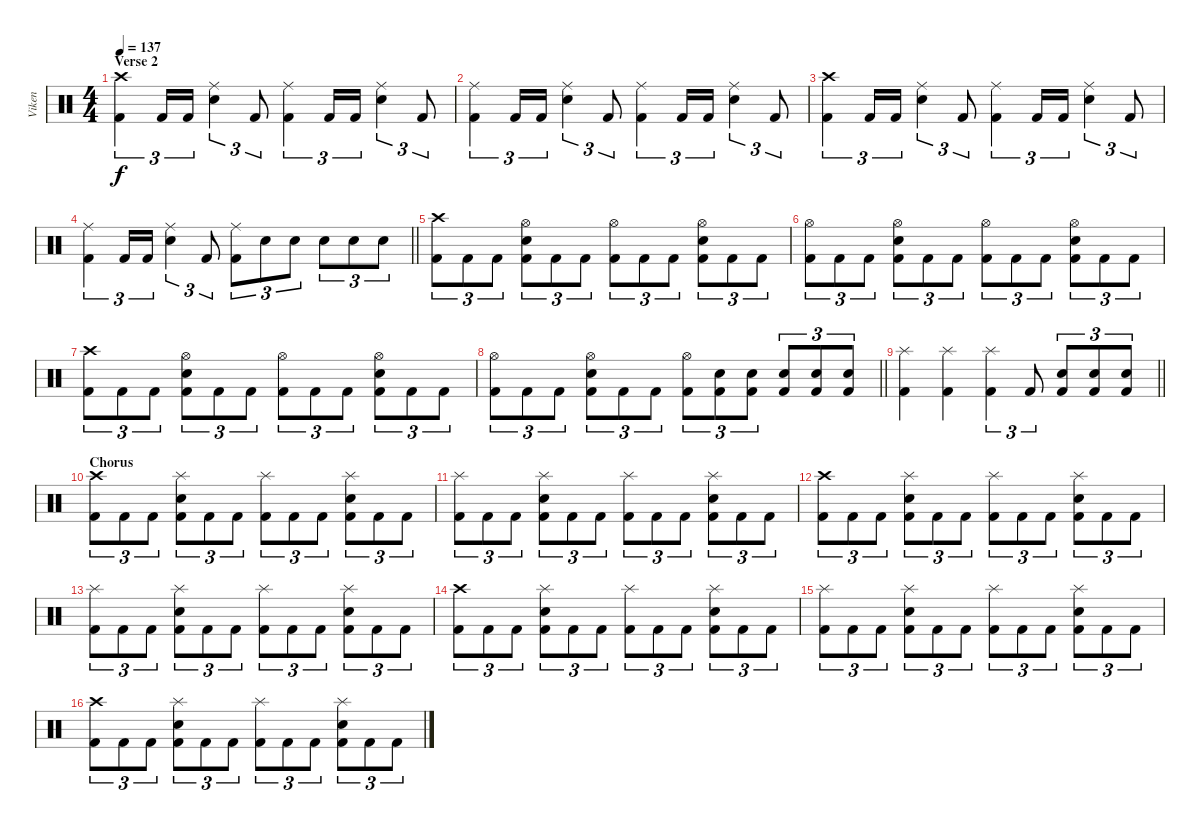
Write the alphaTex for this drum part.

\track ("Viken" "Viken") {instrument percussion}
\staff {score}
\articulation defaults
\ts (4 4)
\section ("" "Verse 2")
\tempo 137
\clef neutral
\ks c
("Crash high (hit)" "Kick (hit) 2").4{tu (3 2) dy f} "Kick (hit) 2".16{tu (3 2)} "Kick (hit) 2".16{tu (3 2)} ("Ride (middle)" "Electric Snare (hit)").4{tu (3 2)} "Kick (hit) 2".8{tu (3 2)} ("Ride (middle)" "Kick (hit) 2").4{tu (3 2)} "Kick (hit) 2".16{tu (3 2)} "Kick (hit) 2".16{tu (3 2)} ("Ride (middle)" "Electric Snare (hit)").4{tu (3 2)} "Kick (hit) 2".8{tu (3 2)} |
("Ride (middle)" "Kick (hit) 2").4{tu (3 2)} "Kick (hit) 2".16{tu (3 2)} "Kick (hit) 2".16{tu (3 2)} ("Ride (middle)" "Electric Snare (hit)").4{tu (3 2)} "Kick (hit) 2".8{tu (3 2)} ("Ride (middle)" "Kick (hit) 2").4{tu (3 2)} "Kick (hit) 2".16{tu (3 2)} "Kick (hit) 2".16{tu (3 2)} ("Ride (middle)" "Electric Snare (hit)").4{tu (3 2)} "Kick (hit) 2".8{tu (3 2)} |
("Crash high (hit)" "Kick (hit) 2").4{tu (3 2)} "Kick (hit) 2".16{tu (3 2)} "Kick (hit) 2".16{tu (3 2)} ("Ride (middle)" "Electric Snare (hit)").4{tu (3 2)} "Kick (hit) 2".8{tu (3 2)} ("Ride (middle)" "Kick (hit) 2").4{tu (3 2)} "Kick (hit) 2".16{tu (3 2)} "Kick (hit) 2".16{tu (3 2)} ("Ride (middle)" "Electric Snare (hit)").4{tu (3 2)} "Kick (hit) 2".8{tu (3 2)} |
\barLineRight lightlight
("Ride (middle)" "Kick (hit) 2").4{tu (3 2)} "Kick (hit) 2".16{tu (3 2)} "Kick (hit) 2".16{tu (3 2)} ("Ride (middle)" "Electric Snare (hit)").4{tu (3 2)} "Kick (hit) 2".8{tu (3 2)} ("Ride (middle)" "Kick (hit) 2").8{tu (3 2)} "Electric Snare (hit)".8{tu (3 2)} "Electric Snare (hit)".8{tu (3 2)} "Electric Snare (hit)".8{tu (3 2)} "Electric Snare (hit)".8{tu (3 2)} "Electric Snare (hit)".8{tu (3 2)} |
\section ("" "")
("Crash high (hit)" "Kick (hit) 2").8{tu (3 2)} "Kick (hit) 2".8{tu (3 2)} "Kick (hit) 2".8{tu (3 2)} ("Hi-Hat (open)" "Electric Snare (hit)" "Kick (hit) 2").8{tu (3 2)} "Kick (hit) 2".8{tu (3 2)} "Kick (hit) 2".8{tu (3 2)} ("Hi-Hat (open)" "Kick (hit) 2").8{tu (3 2)} "Kick (hit) 2".8{tu (3 2)} "Kick (hit) 2".8{tu (3 2)} ("Hi-Hat (open)" "Electric Snare (hit)" "Kick (hit) 2").8{tu (3 2)} "Kick (hit) 2".8{tu (3 2)} "Kick (hit) 2".8{tu (3 2)} |
("Hi-Hat (open)" "Kick (hit) 2").8{tu (3 2)} "Kick (hit) 2".8{tu (3 2)} "Kick (hit) 2".8{tu (3 2)} ("Hi-Hat (open)" "Electric Snare (hit)" "Kick (hit) 2").8{tu (3 2)} "Kick (hit) 2".8{tu (3 2)} "Kick (hit) 2".8{tu (3 2)} ("Hi-Hat (open)" "Kick (hit) 2").8{tu (3 2)} "Kick (hit) 2".8{tu (3 2)} "Kick (hit) 2".8{tu (3 2)} ("Hi-Hat (open)" "Electric Snare (hit)" "Kick (hit) 2").8{tu (3 2)} "Kick (hit) 2".8{tu (3 2)} "Kick (hit) 2".8{tu (3 2)} |
("Crash high (hit)" "Kick (hit) 2").8{tu (3 2)} "Kick (hit) 2".8{tu (3 2)} "Kick (hit) 2".8{tu (3 2)} ("Hi-Hat (open)" "Electric Snare (hit)" "Kick (hit) 2").8{tu (3 2)} "Kick (hit) 2".8{tu (3 2)} "Kick (hit) 2".8{tu (3 2)} ("Hi-Hat (open)" "Kick (hit) 2").8{tu (3 2)} "Kick (hit) 2".8{tu (3 2)} "Kick (hit) 2".8{tu (3 2)} ("Hi-Hat (open)" "Electric Snare (hit)" "Kick (hit) 2").8{tu (3 2)} "Kick (hit) 2".8{tu (3 2)} "Kick (hit) 2".8{tu (3 2)} |
\barLineRight lightlight
("Hi-Hat (open)" "Kick (hit) 2").8{tu (3 2)} "Kick (hit) 2".8{tu (3 2)} "Kick (hit) 2".8{tu (3 2)} ("Hi-Hat (open)" "Electric Snare (hit)" "Kick (hit) 2").8{tu (3 2)} "Kick (hit) 2".8{tu (3 2)} "Kick (hit) 2".8{tu (3 2)} ("Hi-Hat (open)" "Kick (hit) 2").8{tu (3 2)} ("Electric Snare (hit)" "Kick (hit) 2").8{tu (3 2)} ("Electric Snare (hit)" "Kick (hit) 2").8{tu (3 2)} ("Electric Snare (hit)" "Kick (hit) 2").8{tu (3 2)} ("Electric Snare (hit)" "Kick (hit) 2").8{tu (3 2)} ("Electric Snare (hit)" "Kick (hit) 2").8{tu (3 2)} |
\barLineRight lightlight
("Splash (hit)" "Kick (hit) 2").4 ("Splash (hit)" "Kick (hit) 2").4 ("Splash (hit)" "Kick (hit) 2").4{tu (3 2)} "Kick (hit) 2".8{tu (3 2)} ("Electric Snare (hit)" "Kick (hit) 2").8{tu (3 2)} ("Electric Snare (hit)" "Kick (hit) 2").8{tu (3 2)} ("Electric Snare (hit)" "Kick (hit) 2").8{tu (3 2)} |
\section ("" "Chorus")
("Crash high (hit)" "Kick (hit) 2").8{tu (3 2)} "Kick (hit) 2".8{tu (3 2)} "Kick (hit) 2".8{tu (3 2)} ("Splash (hit)" "Electric Snare (hit)" "Kick (hit) 2").8{tu (3 2)} "Kick (hit) 2".8{tu (3 2)} "Kick (hit) 2".8{tu (3 2)} ("Splash (hit)" "Kick (hit) 2").8{tu (3 2)} "Kick (hit) 2".8{tu (3 2)} "Kick (hit) 2".8{tu (3 2)} ("Splash (hit)" "Electric Snare (hit)" "Kick (hit) 2").8{tu (3 2)} "Kick (hit) 2".8{tu (3 2)} "Kick (hit) 2".8{tu (3 2)} |
("Splash (hit)" "Kick (hit) 2").8{tu (3 2)} "Kick (hit) 2".8{tu (3 2)} "Kick (hit) 2".8{tu (3 2)} ("Splash (hit)" "Electric Snare (hit)" "Kick (hit) 2").8{tu (3 2)} "Kick (hit) 2".8{tu (3 2)} "Kick (hit) 2".8{tu (3 2)} ("Splash (hit)" "Kick (hit) 2").8{tu (3 2)} "Kick (hit) 2".8{tu (3 2)} "Kick (hit) 2".8{tu (3 2)} ("Splash (hit)" "Electric Snare (hit)" "Kick (hit) 2").8{tu (3 2)} "Kick (hit) 2".8{tu (3 2)} "Kick (hit) 2".8{tu (3 2)} |
("Crash high (hit)" "Kick (hit) 2").8{tu (3 2)} "Kick (hit) 2".8{tu (3 2)} "Kick (hit) 2".8{tu (3 2)} ("Splash (hit)" "Electric Snare (hit)" "Kick (hit) 2").8{tu (3 2)} "Kick (hit) 2".8{tu (3 2)} "Kick (hit) 2".8{tu (3 2)} ("Splash (hit)" "Kick (hit) 2").8{tu (3 2)} "Kick (hit) 2".8{tu (3 2)} "Kick (hit) 2".8{tu (3 2)} ("Splash (hit)" "Electric Snare (hit)" "Kick (hit) 2").8{tu (3 2)} "Kick (hit) 2".8{tu (3 2)} "Kick (hit) 2".8{tu (3 2)} |
("Splash (hit)" "Kick (hit) 2").8{tu (3 2)} "Kick (hit) 2".8{tu (3 2)} "Kick (hit) 2".8{tu (3 2)} ("Splash (hit)" "Electric Snare (hit)" "Kick (hit) 2").8{tu (3 2)} "Kick (hit) 2".8{tu (3 2)} "Kick (hit) 2".8{tu (3 2)} ("Splash (hit)" "Kick (hit) 2").8{tu (3 2)} "Kick (hit) 2".8{tu (3 2)} "Kick (hit) 2".8{tu (3 2)} ("Splash (hit)" "Electric Snare (hit)" "Kick (hit) 2").8{tu (3 2)} "Kick (hit) 2".8{tu (3 2)} "Kick (hit) 2".8{tu (3 2)} |
("Crash high (hit)" "Kick (hit) 2").8{tu (3 2)} "Kick (hit) 2".8{tu (3 2)} "Kick (hit) 2".8{tu (3 2)} ("Splash (hit)" "Electric Snare (hit)" "Kick (hit) 2").8{tu (3 2)} "Kick (hit) 2".8{tu (3 2)} "Kick (hit) 2".8{tu (3 2)} ("Splash (hit)" "Kick (hit) 2").8{tu (3 2)} "Kick (hit) 2".8{tu (3 2)} "Kick (hit) 2".8{tu (3 2)} ("Splash (hit)" "Electric Snare (hit)" "Kick (hit) 2").8{tu (3 2)} "Kick (hit) 2".8{tu (3 2)} "Kick (hit) 2".8{tu (3 2)} |
("Splash (hit)" "Kick (hit) 2").8{tu (3 2)} "Kick (hit) 2".8{tu (3 2)} "Kick (hit) 2".8{tu (3 2)} ("Splash (hit)" "Electric Snare (hit)" "Kick (hit) 2").8{tu (3 2)} "Kick (hit) 2".8{tu (3 2)} "Kick (hit) 2".8{tu (3 2)} ("Splash (hit)" "Kick (hit) 2").8{tu (3 2)} "Kick (hit) 2".8{tu (3 2)} "Kick (hit) 2".8{tu (3 2)} ("Splash (hit)" "Electric Snare (hit)" "Kick (hit) 2").8{tu (3 2)} "Kick (hit) 2".8{tu (3 2)} "Kick (hit) 2".8{tu (3 2)} |
("Crash high (hit)" "Kick (hit) 2").8{tu (3 2)} "Kick (hit) 2".8{tu (3 2)} "Kick (hit) 2".8{tu (3 2)} ("Splash (hit)" "Electric Snare (hit)" "Kick (hit) 2").8{tu (3 2)} "Kick (hit) 2".8{tu (3 2)} "Kick (hit) 2".8{tu (3 2)} ("Splash (hit)" "Kick (hit) 2").8{tu (3 2)} "Kick (hit) 2".8{tu (3 2)} "Kick (hit) 2".8{tu (3 2)} ("Splash (hit)" "Electric Snare (hit)" "Kick (hit) 2").8{tu (3 2)} "Kick (hit) 2".8{tu (3 2)} "Kick (hit) 2".8{tu (3 2)}
